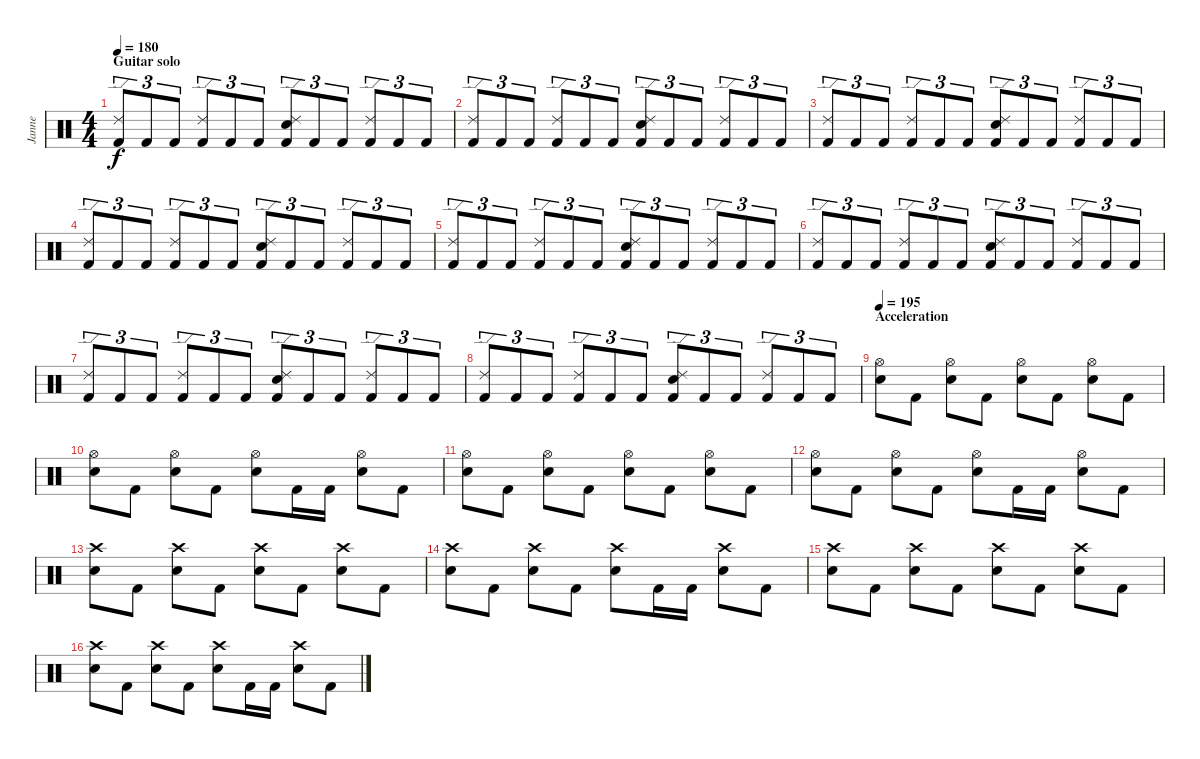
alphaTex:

\track ("Janne" "Janne") {instrument percussion}
\staff {score}
\articulation defaults
\ts (4 4)
\section ("" "Guitar solo")
\tempo 180
\clef neutral
\ks c
("Ride (edge) 2" "Kick (hit) 2").8{tu (3 2) dy f} "Kick (hit) 2".8{tu (3 2)} "Kick (hit) 2".8{tu (3 2)} ("Ride (edge) 2" "Kick (hit) 2").8{tu (3 2)} "Kick (hit) 2".8{tu (3 2)} "Kick (hit) 2".8{tu (3 2)} ("Ride (edge) 2" "Electric Snare (hit)" "Kick (hit) 2").8{tu (3 2)} "Kick (hit) 2".8{tu (3 2)} "Kick (hit) 2".8{tu (3 2)} ("Ride (edge) 2" "Kick (hit) 2").8{tu (3 2)} "Kick (hit) 2".8{tu (3 2)} "Kick (hit) 2".8{tu (3 2)} |
("Ride (edge) 2" "Kick (hit) 2").8{tu (3 2)} "Kick (hit) 2".8{tu (3 2)} "Kick (hit) 2".8{tu (3 2)} ("Ride (edge) 2" "Kick (hit) 2").8{tu (3 2)} "Kick (hit) 2".8{tu (3 2)} "Kick (hit) 2".8{tu (3 2)} ("Ride (edge) 2" "Electric Snare (hit)" "Kick (hit) 2").8{tu (3 2)} "Kick (hit) 2".8{tu (3 2)} "Kick (hit) 2".8{tu (3 2)} ("Ride (edge) 2" "Kick (hit) 2").8{tu (3 2)} "Kick (hit) 2".8{tu (3 2)} "Kick (hit) 2".8{tu (3 2)} |
("Ride (edge) 2" "Kick (hit) 2").8{tu (3 2)} "Kick (hit) 2".8{tu (3 2)} "Kick (hit) 2".8{tu (3 2)} ("Ride (edge) 2" "Kick (hit) 2").8{tu (3 2)} "Kick (hit) 2".8{tu (3 2)} "Kick (hit) 2".8{tu (3 2)} ("Ride (edge) 2" "Electric Snare (hit)" "Kick (hit) 2").8{tu (3 2)} "Kick (hit) 2".8{tu (3 2)} "Kick (hit) 2".8{tu (3 2)} ("Ride (edge) 2" "Kick (hit) 2").8{tu (3 2)} "Kick (hit) 2".8{tu (3 2)} "Kick (hit) 2".8{tu (3 2)} |
("Ride (edge) 2" "Kick (hit) 2").8{tu (3 2)} "Kick (hit) 2".8{tu (3 2)} "Kick (hit) 2".8{tu (3 2)} ("Ride (edge) 2" "Kick (hit) 2").8{tu (3 2)} "Kick (hit) 2".8{tu (3 2)} "Kick (hit) 2".8{tu (3 2)} ("Ride (edge) 2" "Electric Snare (hit)" "Kick (hit) 2").8{tu (3 2)} "Kick (hit) 2".8{tu (3 2)} "Kick (hit) 2".8{tu (3 2)} ("Ride (edge) 2" "Kick (hit) 2").8{tu (3 2)} "Kick (hit) 2".8{tu (3 2)} "Kick (hit) 2".8{tu (3 2)} |
("Ride (edge) 2" "Kick (hit) 2").8{tu (3 2)} "Kick (hit) 2".8{tu (3 2)} "Kick (hit) 2".8{tu (3 2)} ("Ride (edge) 2" "Kick (hit) 2").8{tu (3 2)} "Kick (hit) 2".8{tu (3 2)} "Kick (hit) 2".8{tu (3 2)} ("Ride (edge) 2" "Electric Snare (hit)" "Kick (hit) 2").8{tu (3 2)} "Kick (hit) 2".8{tu (3 2)} "Kick (hit) 2".8{tu (3 2)} ("Ride (edge) 2" "Kick (hit) 2").8{tu (3 2)} "Kick (hit) 2".8{tu (3 2)} "Kick (hit) 2".8{tu (3 2)} |
("Ride (edge) 2" "Kick (hit) 2").8{tu (3 2)} "Kick (hit) 2".8{tu (3 2)} "Kick (hit) 2".8{tu (3 2)} ("Ride (edge) 2" "Kick (hit) 2").8{tu (3 2)} "Kick (hit) 2".8{tu (3 2)} "Kick (hit) 2".8{tu (3 2)} ("Ride (edge) 2" "Electric Snare (hit)" "Kick (hit) 2").8{tu (3 2)} "Kick (hit) 2".8{tu (3 2)} "Kick (hit) 2".8{tu (3 2)} ("Ride (edge) 2" "Kick (hit) 2").8{tu (3 2)} "Kick (hit) 2".8{tu (3 2)} "Kick (hit) 2".8{tu (3 2)} |
("Ride (edge) 2" "Kick (hit) 2").8{tu (3 2)} "Kick (hit) 2".8{tu (3 2)} "Kick (hit) 2".8{tu (3 2)} ("Ride (edge) 2" "Kick (hit) 2").8{tu (3 2)} "Kick (hit) 2".8{tu (3 2)} "Kick (hit) 2".8{tu (3 2)} ("Ride (edge) 2" "Electric Snare (hit)" "Kick (hit) 2").8{tu (3 2)} "Kick (hit) 2".8{tu (3 2)} "Kick (hit) 2".8{tu (3 2)} ("Ride (edge) 2" "Kick (hit) 2").8{tu (3 2)} "Kick (hit) 2".8{tu (3 2)} "Kick (hit) 2".8{tu (3 2)} |
("Ride (edge) 2" "Kick (hit) 2").8{tu (3 2)} "Kick (hit) 2".8{tu (3 2)} "Kick (hit) 2".8{tu (3 2)} ("Ride (edge) 2" "Kick (hit) 2").8{tu (3 2)} "Kick (hit) 2".8{tu (3 2)} "Kick (hit) 2".8{tu (3 2)} ("Ride (edge) 2" "Electric Snare (hit)" "Kick (hit) 2").8{tu (3 2)} "Kick (hit) 2".8{tu (3 2)} "Kick (hit) 2".8{tu (3 2)} ("Ride (edge) 2" "Kick (hit) 2").8{tu (3 2)} "Kick (hit) 2".8{tu (3 2)} "Kick (hit) 2".8{tu (3 2)} |
\section ("" "Acceleration")
\tempo 195
("Hi-Hat (open)" "Electric Snare (hit)").8 "Kick (hit) 2".8 ("Hi-Hat (open)" "Electric Snare (hit)").8 "Kick (hit) 2".8 ("Hi-Hat (open)" "Electric Snare (hit)").8 "Kick (hit) 2".8 ("Hi-Hat (open)" "Electric Snare (hit)").8 "Kick (hit) 2".8 |
("Hi-Hat (open)" "Electric Snare (hit)").8 "Kick (hit) 2".8 ("Hi-Hat (open)" "Electric Snare (hit)").8 "Kick (hit) 2".8 ("Hi-Hat (open)" "Electric Snare (hit)").8 "Kick (hit) 2".16 "Kick (hit) 2".16 ("Hi-Hat (open)" "Electric Snare (hit)").8 "Kick (hit) 2".8 |
("Hi-Hat (open)" "Electric Snare (hit)").8 "Kick (hit) 2".8 ("Hi-Hat (open)" "Electric Snare (hit)").8 "Kick (hit) 2".8 ("Hi-Hat (open)" "Electric Snare (hit)").8 "Kick (hit) 2".8 ("Hi-Hat (open)" "Electric Snare (hit)").8 "Kick (hit) 2".8 |
("Hi-Hat (open)" "Electric Snare (hit)").8 "Kick (hit) 2".8 ("Hi-Hat (open)" "Electric Snare (hit)").8 "Kick (hit) 2".8 ("Hi-Hat (open)" "Electric Snare (hit)").8 "Kick (hit) 2".16 "Kick (hit) 2".16 ("Hi-Hat (open)" "Electric Snare (hit)").8 "Kick (hit) 2".8 |
("Crash high (hit)" "Electric Snare (hit)").8 "Kick (hit) 2".8 ("Crash high (hit)" "Electric Snare (hit)").8 "Kick (hit) 2".8 ("Crash high (hit)" "Electric Snare (hit)").8 "Kick (hit) 2".8 ("Crash high (hit)" "Electric Snare (hit)").8 "Kick (hit) 2".8 |
("Crash high (hit)" "Electric Snare (hit)").8 "Kick (hit) 2".8 ("Crash high (hit)" "Electric Snare (hit)").8 "Kick (hit) 2".8 ("Crash high (hit)" "Electric Snare (hit)").8 "Kick (hit) 2".16 "Kick (hit) 2".16 ("Crash high (hit)" "Electric Snare (hit)").8 "Kick (hit) 2".8 |
("Crash high (hit)" "Electric Snare (hit)").8 "Kick (hit) 2".8 ("Crash high (hit)" "Electric Snare (hit)").8 "Kick (hit) 2".8 ("Crash high (hit)" "Electric Snare (hit)").8 "Kick (hit) 2".8 ("Crash high (hit)" "Electric Snare (hit)").8 "Kick (hit) 2".8 |
("Crash high (hit)" "Electric Snare (hit)").8 "Kick (hit) 2".8 ("Crash high (hit)" "Electric Snare (hit)").8 "Kick (hit) 2".8 ("Crash high (hit)" "Electric Snare (hit)").8 "Kick (hit) 2".16 "Kick (hit) 2".16 ("Crash high (hit)" "Electric Snare (hit)").8 "Kick (hit) 2".8
